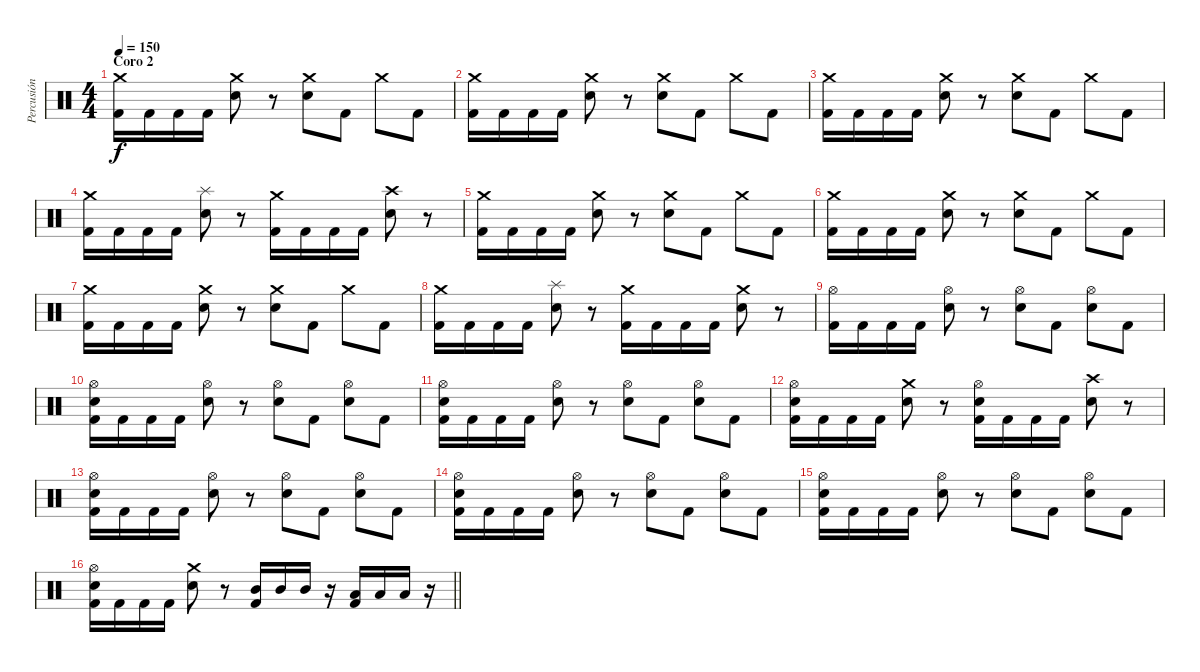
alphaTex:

\track ("Percusión" "Percusión") {instrument percussion}
\staff {score}
\articulation defaults
\ts (4 4)
\section ("" "Coro 2")
\tempo 150
\clef neutral
\ks c
("Crash medium (hit)" "Kick (hit) 2").16{dy f} "Kick (hit) 2".16 "Kick (hit) 2".16 "Kick (hit) 2".16 ("Crash medium (hit)" "Electric Snare (hit)").8 r.8 ("Crash medium (hit)" "Electric Snare (hit)").8 "Kick (hit) 2".8 "Crash medium (hit)".8 "Kick (hit) 2".8 |
("Crash medium (hit)" "Kick (hit) 2").16 "Kick (hit) 2".16 "Kick (hit) 2".16 "Kick (hit) 2".16 ("Crash medium (hit)" "Electric Snare (hit)").8 r.8 ("Crash medium (hit)" "Electric Snare (hit)").8 "Kick (hit) 2".8 "Crash medium (hit)".8 "Kick (hit) 2".8 |
("Crash medium (hit)" "Kick (hit) 2").16 "Kick (hit) 2".16 "Kick (hit) 2".16 "Kick (hit) 2".16 ("Crash medium (hit)" "Electric Snare (hit)").8 r.8 ("Crash medium (hit)" "Electric Snare (hit)").8 "Kick (hit) 2".8 "Crash medium (hit)".8 "Kick (hit) 2".8 |
("Crash medium (hit)" "Kick (hit) 2").16 "Kick (hit) 2".16 "Kick (hit) 2".16 "Kick (hit) 2".16 ("Splash (hit)" "Electric Snare (hit)").8 r.8 ("Crash medium (hit)" "Kick (hit) 2").16 "Kick (hit) 2".16 "Kick (hit) 2".16 "Kick (hit) 2".16 ("Crash high (hit)" "Electric Snare (hit)").8 r.8 |
("Crash medium (hit)" "Kick (hit) 2").16 "Kick (hit) 2".16 "Kick (hit) 2".16 "Kick (hit) 2".16 ("Crash medium (hit)" "Electric Snare (hit)").8 r.8 ("Crash medium (hit)" "Electric Snare (hit)").8 "Kick (hit) 2".8 "Crash medium (hit)".8 "Kick (hit) 2".8 |
("Crash medium (hit)" "Kick (hit) 2").16 "Kick (hit) 2".16 "Kick (hit) 2".16 "Kick (hit) 2".16 ("Crash medium (hit)" "Electric Snare (hit)").8 r.8 ("Crash medium (hit)" "Electric Snare (hit)").8 "Kick (hit) 2".8 "Crash medium (hit)".8 "Kick (hit) 2".8 |
("Crash medium (hit)" "Kick (hit) 2").16 "Kick (hit) 2".16 "Kick (hit) 2".16 "Kick (hit) 2".16 ("Crash medium (hit)" "Electric Snare (hit)").8 r.8 ("Crash medium (hit)" "Electric Snare (hit)").8 "Kick (hit) 2".8 "Crash medium (hit)".8 "Kick (hit) 2".8 |
("Crash medium (hit)" "Kick (hit) 2").16 "Kick (hit) 2".16 "Kick (hit) 2".16 "Kick (hit) 2".16 ("Splash (hit)" "Electric Snare (hit)").8 r.8 ("Crash medium (hit)" "Kick (hit) 2").16 "Kick (hit) 2".16 "Kick (hit) 2".16 "Kick (hit) 2".16 ("Crash medium (hit)" "Electric Snare (hit)").8 r.8 |
("Hi-Hat (open)" "Kick (hit) 2").16 "Kick (hit) 2".16 "Kick (hit) 2".16 "Kick (hit) 2".16 ("Hi-Hat (open)" "Electric Snare (hit)").8 r.8 ("Hi-Hat (open)" "Electric Snare (hit)").8 "Kick (hit) 2".8 ("Hi-Hat (open)" "Electric Snare (hit)").8 "Kick (hit) 2".8 |
("Hi-Hat (open)" "Electric Snare (hit)" "Kick (hit) 2").16 "Kick (hit) 2".16 "Kick (hit) 2".16 "Kick (hit) 2".16 ("Hi-Hat (open)" "Electric Snare (hit)").8 r.8 ("Hi-Hat (open)" "Electric Snare (hit)").8 "Kick (hit) 2".8 ("Hi-Hat (open)" "Electric Snare (hit)").8 "Kick (hit) 2".8 |
("Hi-Hat (open)" "Electric Snare (hit)" "Kick (hit) 2").16 "Kick (hit) 2".16 "Kick (hit) 2".16 "Kick (hit) 2".16 ("Hi-Hat (open)" "Electric Snare (hit)").8 r.8 ("Hi-Hat (open)" "Electric Snare (hit)").8 "Kick (hit) 2".8 ("Hi-Hat (open)" "Electric Snare (hit)").8 "Kick (hit) 2".8 |
("Hi-Hat (open)" "Electric Snare (hit)" "Kick (hit) 2").16 "Kick (hit) 2".16 "Kick (hit) 2".16 "Kick (hit) 2".16 ("Crash medium (hit)" "Electric Snare (hit)").8 r.8 ("Hi-Hat (open)" "Electric Snare (hit)" "Kick (hit) 2").16 "Kick (hit) 2".16 "Kick (hit) 2".16 "Kick (hit) 2".16 ("Crash high (hit)" "Electric Snare (hit)").8 r.8 |
("Hi-Hat (open)" "Electric Snare (hit)" "Kick (hit) 2").16 "Kick (hit) 2".16 "Kick (hit) 2".16 "Kick (hit) 2".16 ("Hi-Hat (open)" "Electric Snare (hit)").8 r.8 ("Hi-Hat (open)" "Electric Snare (hit)").8 "Kick (hit) 2".8 ("Hi-Hat (open)" "Electric Snare (hit)").8 "Kick (hit) 2".8 |
("Hi-Hat (open)" "Electric Snare (hit)" "Kick (hit) 2").16 "Kick (hit) 2".16 "Kick (hit) 2".16 "Kick (hit) 2".16 ("Hi-Hat (open)" "Electric Snare (hit)").8 r.8 ("Hi-Hat (open)" "Electric Snare (hit)").8 "Kick (hit) 2".8 ("Hi-Hat (open)" "Electric Snare (hit)").8 "Kick (hit) 2".8 |
("Hi-Hat (open)" "Electric Snare (hit)" "Kick (hit) 2").16 "Kick (hit) 2".16 "Kick (hit) 2".16 "Kick (hit) 2".16 ("Hi-Hat (open)" "Electric Snare (hit)").8 r.8 ("Hi-Hat (open)" "Electric Snare (hit)").8 "Kick (hit) 2".8 ("Hi-Hat (open)" "Electric Snare (hit)").8 "Kick (hit) 2".8 |
\barLineRight lightlight
("Hi-Hat (open)" "Electric Snare (hit)" "Kick (hit) 2").16 "Kick (hit) 2".16 "Kick (hit) 2".16 "Kick (hit) 2".16 ("Crash medium (hit)" "Electric Snare (hit)").8 r.8 ("Mid Tom (hit)" "Kick (hit) 2").16 "Mid Tom (hit)".16 "Mid Tom (hit)".16 r.16 ("Low Tom (hit)" "Kick (hit) 2").16 "Low Tom (hit)".16 "Low Tom (hit)".16 r.16
